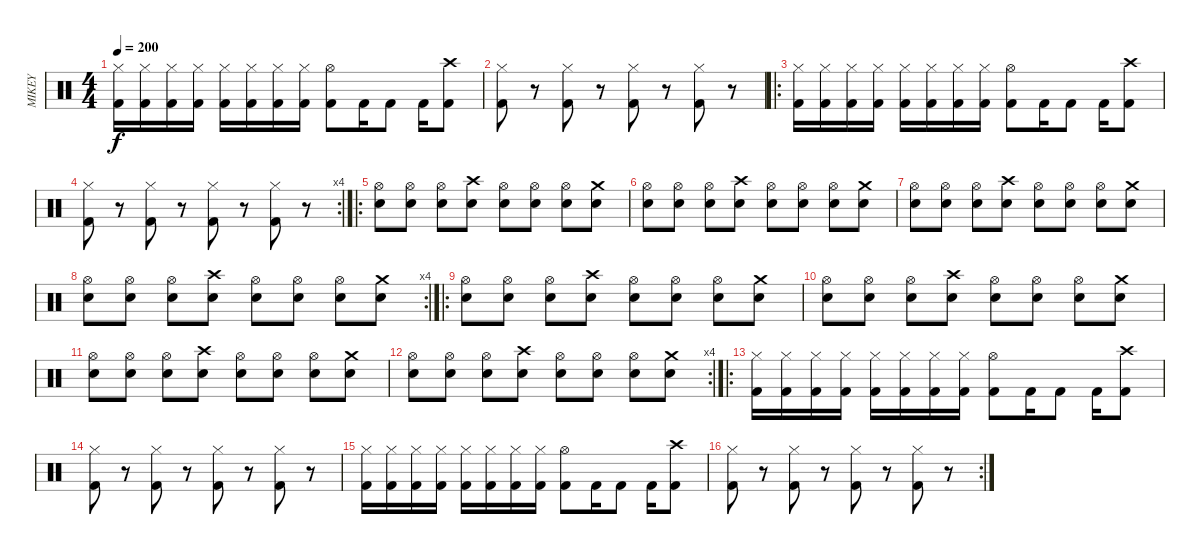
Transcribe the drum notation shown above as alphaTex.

\track ("MIKEY" "MIKEY") {instrument percussion}
\staff {score}
\articulation defaults
\ts (4 4)
\tempo 200
\clef neutral
\ks c
("Hi-Hat (closed)" "Kick (hit) 2").16{dy f} ("Hi-Hat (closed)" "Kick (hit) 2").16 ("Hi-Hat (closed)" "Kick (hit) 2").16 ("Hi-Hat (closed)" "Kick (hit) 2").16 ("Hi-Hat (closed)" "Kick (hit) 2").16 ("Hi-Hat (closed)" "Kick (hit) 2").16 ("Hi-Hat (closed)" "Kick (hit) 2").16 ("Hi-Hat (closed)" "Kick (hit) 2").16 ("Hi-Hat (open)" "Kick (hit) 2").8 "Kick (hit) 2".16 "Kick (hit) 2".8 "Kick (hit) 2".16 ("Crash high (hit)" "Kick (hit) 2").8 |
("Hi-Hat (closed)" "Kick (hit) 2").8 r.8 ("Hi-Hat (closed)" "Kick (hit) 2").8 r.8 ("Hi-Hat (closed)" "Kick (hit) 2").8 r.8 ("Hi-Hat (closed)" "Kick (hit) 2").8 r.8 |
\ro
("Hi-Hat (closed)" "Kick (hit) 2").16 ("Hi-Hat (closed)" "Kick (hit) 2").16 ("Hi-Hat (closed)" "Kick (hit) 2").16 ("Hi-Hat (closed)" "Kick (hit) 2").16 ("Hi-Hat (closed)" "Kick (hit) 2").16 ("Hi-Hat (closed)" "Kick (hit) 2").16 ("Hi-Hat (closed)" "Kick (hit) 2").16 ("Hi-Hat (closed)" "Kick (hit) 2").16 ("Hi-Hat (open)" "Kick (hit) 2").8 "Kick (hit) 2".16 "Kick (hit) 2".8 "Kick (hit) 2".16 ("Crash high (hit)" "Kick (hit) 2").8 |
\rc 4
("Hi-Hat (closed)" "Kick (hit) 2").8 r.8 ("Hi-Hat (closed)" "Kick (hit) 2").8 r.8 ("Hi-Hat (closed)" "Kick (hit) 2").8 r.8 ("Hi-Hat (closed)" "Kick (hit) 2").8 r.8 |
\ro
("Hi-Hat (open)" "Snare (hit) 2").8 ("Hi-Hat (open)" "Snare (hit) 2").8 ("Hi-Hat (open)" "Snare (hit) 2").8 ("Crash high (hit)" "Snare (hit) 2").8 ("Hi-Hat (open)" "Snare (hit) 2").8 ("Hi-Hat (open)" "Snare (hit) 2").8 ("Hi-Hat (open)" "Snare (hit) 2").8 ("Crash medium (hit)" "Snare (hit) 2").8 |
("Hi-Hat (open)" "Snare (hit) 2").8 ("Hi-Hat (open)" "Snare (hit) 2").8 ("Hi-Hat (open)" "Snare (hit) 2").8 ("Crash high (hit)" "Snare (hit) 2").8 ("Hi-Hat (open)" "Snare (hit) 2").8 ("Hi-Hat (open)" "Snare (hit) 2").8 ("Hi-Hat (open)" "Snare (hit) 2").8 ("Crash medium (hit)" "Snare (hit) 2").8 |
("Hi-Hat (open)" "Snare (hit) 2").8 ("Hi-Hat (open)" "Snare (hit) 2").8 ("Hi-Hat (open)" "Snare (hit) 2").8 ("Crash high (hit)" "Snare (hit) 2").8 ("Hi-Hat (open)" "Snare (hit) 2").8 ("Hi-Hat (open)" "Snare (hit) 2").8 ("Hi-Hat (open)" "Snare (hit) 2").8 ("Crash medium (hit)" "Snare (hit) 2").8 |
\rc 4
("Hi-Hat (open)" "Snare (hit) 2").8 ("Hi-Hat (open)" "Snare (hit) 2").8 ("Hi-Hat (open)" "Snare (hit) 2").8 ("Crash high (hit)" "Snare (hit) 2").8 ("Hi-Hat (open)" "Snare (hit) 2").8 ("Hi-Hat (open)" "Snare (hit) 2").8 ("Hi-Hat (open)" "Snare (hit) 2").8 ("Crash medium (hit)" "Snare (hit) 2").8 |
\ro
("Hi-Hat (open)" "Snare (hit) 2").8 ("Hi-Hat (open)" "Snare (hit) 2").8 ("Hi-Hat (open)" "Snare (hit) 2").8 ("Crash high (hit)" "Snare (hit) 2").8 ("Hi-Hat (open)" "Snare (hit) 2").8 ("Hi-Hat (open)" "Snare (hit) 2").8 ("Hi-Hat (open)" "Snare (hit) 2").8 ("Crash medium (hit)" "Snare (hit) 2").8 |
("Hi-Hat (open)" "Snare (hit) 2").8 ("Hi-Hat (open)" "Snare (hit) 2").8 ("Hi-Hat (open)" "Snare (hit) 2").8 ("Crash high (hit)" "Snare (hit) 2").8 ("Hi-Hat (open)" "Snare (hit) 2").8 ("Hi-Hat (open)" "Snare (hit) 2").8 ("Hi-Hat (open)" "Snare (hit) 2").8 ("Crash medium (hit)" "Snare (hit) 2").8 |
("Hi-Hat (open)" "Snare (hit) 2").8 ("Hi-Hat (open)" "Snare (hit) 2").8 ("Hi-Hat (open)" "Snare (hit) 2").8 ("Crash high (hit)" "Snare (hit) 2").8 ("Hi-Hat (open)" "Snare (hit) 2").8 ("Hi-Hat (open)" "Snare (hit) 2").8 ("Hi-Hat (open)" "Snare (hit) 2").8 ("Crash medium (hit)" "Snare (hit) 2").8 |
\rc 4
("Hi-Hat (open)" "Snare (hit) 2").8 ("Hi-Hat (open)" "Snare (hit) 2").8 ("Hi-Hat (open)" "Snare (hit) 2").8 ("Crash high (hit)" "Snare (hit) 2").8 ("Hi-Hat (open)" "Snare (hit) 2").8 ("Hi-Hat (open)" "Snare (hit) 2").8 ("Hi-Hat (open)" "Snare (hit) 2").8 ("Crash medium (hit)" "Snare (hit) 2").8 |
\ro
("Hi-Hat (closed)" "Kick (hit) 2").16 ("Hi-Hat (closed)" "Kick (hit) 2").16 ("Hi-Hat (closed)" "Kick (hit) 2").16 ("Hi-Hat (closed)" "Kick (hit) 2").16 ("Hi-Hat (closed)" "Kick (hit) 2").16 ("Hi-Hat (closed)" "Kick (hit) 2").16 ("Hi-Hat (closed)" "Kick (hit) 2").16 ("Hi-Hat (closed)" "Kick (hit) 2").16 ("Hi-Hat (open)" "Kick (hit) 2").8 "Kick (hit) 2".16 "Kick (hit) 2".8 "Kick (hit) 2".16 ("Crash high (hit)" "Kick (hit) 2").8 |
("Hi-Hat (closed)" "Kick (hit) 2").8 r.8 ("Hi-Hat (closed)" "Kick (hit) 2").8 r.8 ("Hi-Hat (closed)" "Kick (hit) 2").8 r.8 ("Hi-Hat (closed)" "Kick (hit) 2").8 r.8 |
("Hi-Hat (closed)" "Kick (hit) 2").16 ("Hi-Hat (closed)" "Kick (hit) 2").16 ("Hi-Hat (closed)" "Kick (hit) 2").16 ("Hi-Hat (closed)" "Kick (hit) 2").16 ("Hi-Hat (closed)" "Kick (hit) 2").16 ("Hi-Hat (closed)" "Kick (hit) 2").16 ("Hi-Hat (closed)" "Kick (hit) 2").16 ("Hi-Hat (closed)" "Kick (hit) 2").16 ("Hi-Hat (open)" "Kick (hit) 2").8 "Kick (hit) 2".16 "Kick (hit) 2".8 "Kick (hit) 2".16 ("Crash high (hit)" "Kick (hit) 2").8 |
\rc 2
("Hi-Hat (closed)" "Kick (hit) 2").8 r.8 ("Hi-Hat (closed)" "Kick (hit) 2").8 r.8 ("Hi-Hat (closed)" "Kick (hit) 2").8 r.8 ("Hi-Hat (closed)" "Kick (hit) 2").8 r.8
